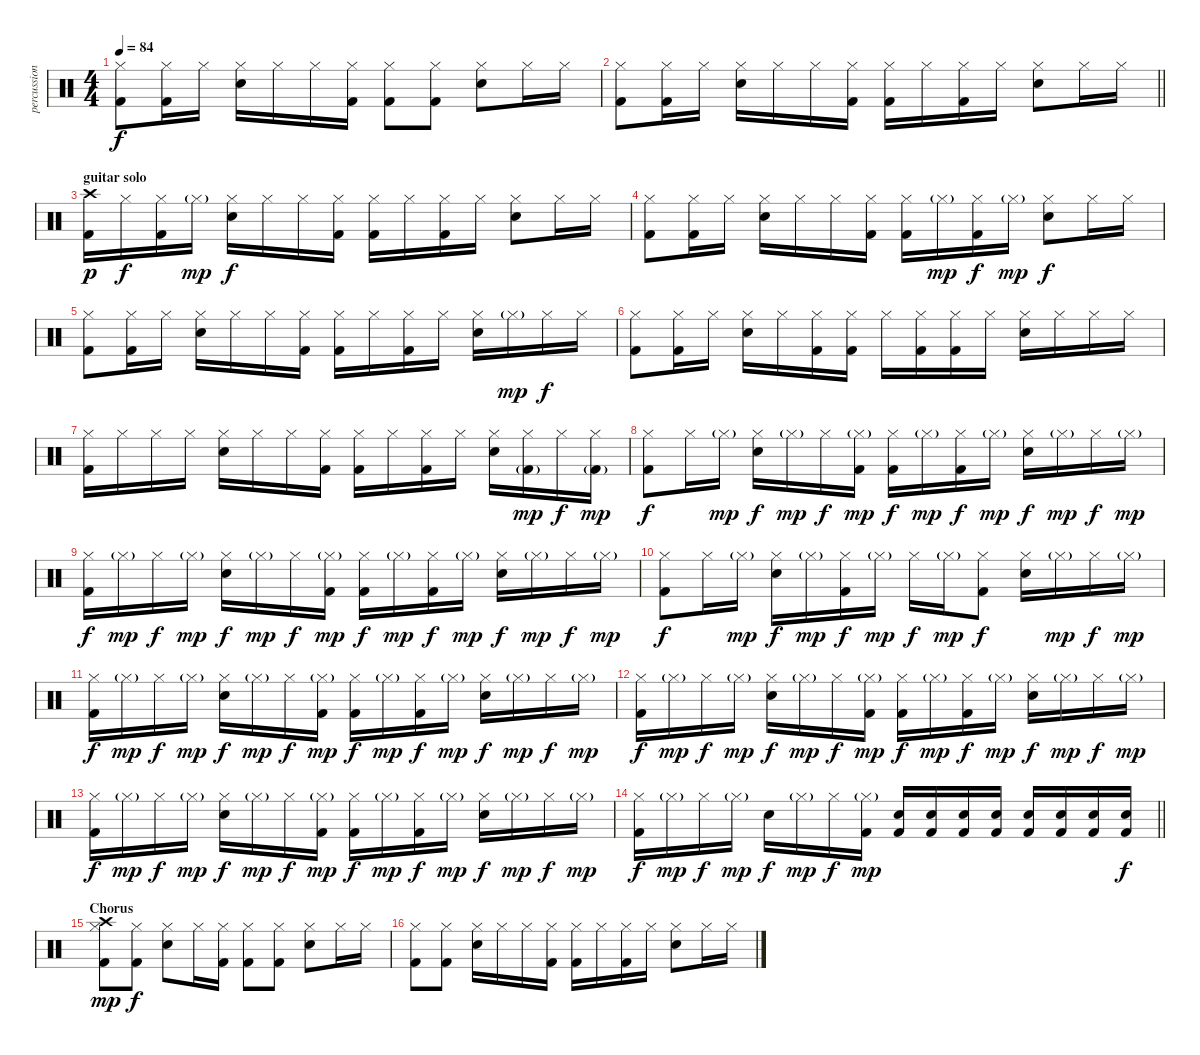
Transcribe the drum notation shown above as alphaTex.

\track ("percussion" "percussion") {instrument percussion}
\staff {score}
\articulation defaults
\ts (4 4)
\tempo 84
\clef neutral
\ks c
("Hi-Hat (closed)" "Kick (hit) 2").8{dy f} ("Hi-Hat (closed)" "Kick (hit) 2").16 "Hi-Hat (closed)".16 ("Snare (hit) 2" "Hi-Hat (closed)").16 "Hi-Hat (closed)".16 "Hi-Hat (closed)".16 ("Hi-Hat (closed)" "Kick (hit) 2").16 ("Hi-Hat (closed)" "Kick (hit) 2").8 ("Hi-Hat (closed)" "Kick (hit) 2").8 ("Snare (hit) 2" "Hi-Hat (closed)").8 "Hi-Hat (closed)".16 "Hi-Hat (closed)".16 |
\barLineRight lightlight
("Hi-Hat (closed)" "Kick (hit) 2").8 ("Hi-Hat (closed)" "Kick (hit) 2").16 "Hi-Hat (closed)".16 ("Snare (hit) 2" "Hi-Hat (closed)").16 "Hi-Hat (closed)".16 "Hi-Hat (closed)".16 ("Hi-Hat (closed)" "Kick (hit) 2").16 ("Hi-Hat (closed)" "Kick (hit) 2").16 "Hi-Hat (closed)".16 ("Hi-Hat (closed)" "Kick (hit) 2").16 "Hi-Hat (closed)".16 ("Snare (hit) 2" "Hi-Hat (closed)").8 "Hi-Hat (closed)".16 "Hi-Hat (closed)".16 |
\section ("" "guitar solo")
("Crash high (hit)" "Kick (hit) 2").16{dy p} "Hi-Hat (closed)".16{dy f} ("Hi-Hat (closed)" "Kick (hit) 2").16 "Hi-Hat (closed)"{g}.16{dy mp} ("Snare (hit) 2" "Hi-Hat (closed)").16{dy f} "Hi-Hat (closed)".16 "Hi-Hat (closed)".16 ("Hi-Hat (closed)" "Kick (hit) 2").16 ("Hi-Hat (closed)" "Kick (hit) 2").16 "Hi-Hat (closed)".16 ("Hi-Hat (closed)" "Kick (hit) 2").16 "Hi-Hat (closed)".16 ("Snare (hit) 2" "Hi-Hat (closed)").8 "Hi-Hat (closed)".16 "Hi-Hat (closed)".16 |
("Hi-Hat (closed)" "Kick (hit) 2").8 ("Hi-Hat (closed)" "Kick (hit) 2").16 "Hi-Hat (closed)".16 ("Snare (hit) 2" "Hi-Hat (closed)").16 "Hi-Hat (closed)".16 "Hi-Hat (closed)".16 ("Hi-Hat (closed)" "Kick (hit) 2").16 ("Hi-Hat (closed)" "Kick (hit) 2").16 "Hi-Hat (closed)"{g}.16{dy mp} ("Hi-Hat (closed)" "Kick (hit) 2").16{dy f} "Hi-Hat (closed)"{g}.16{dy mp} ("Snare (hit) 2" "Hi-Hat (closed)").8{dy f} "Hi-Hat (closed)".16 "Hi-Hat (closed)".16 |
("Hi-Hat (closed)" "Kick (hit) 2").8 ("Hi-Hat (closed)" "Kick (hit) 2").16 "Hi-Hat (closed)".16 ("Snare (hit) 2" "Hi-Hat (closed)").16 "Hi-Hat (closed)".16 "Hi-Hat (closed)".16 ("Hi-Hat (closed)" "Kick (hit) 2").16 ("Hi-Hat (closed)" "Kick (hit) 2").16 "Hi-Hat (closed)".16 ("Hi-Hat (closed)" "Kick (hit) 2").16 "Hi-Hat (closed)".16 ("Snare (hit) 2" "Hi-Hat (closed)").16 "Hi-Hat (closed)"{g}.16{dy mp} "Hi-Hat (closed)".16{dy f} "Hi-Hat (closed)".16 |
("Hi-Hat (closed)" "Kick (hit) 2").8 ("Hi-Hat (closed)" "Kick (hit) 2").16 "Hi-Hat (closed)".16 ("Snare (hit) 2" "Hi-Hat (closed)").16 "Hi-Hat (closed)".16 ("Hi-Hat (closed)" "Kick (hit) 2").16 ("Hi-Hat (closed)" "Kick (hit) 2").16 "Hi-Hat (closed)".16 ("Hi-Hat (closed)" "Kick (hit) 2").16 ("Hi-Hat (closed)" "Kick (hit) 2").16 "Hi-Hat (closed)".16 ("Snare (hit) 2" "Hi-Hat (closed)").16 "Hi-Hat (closed)".16 "Hi-Hat (closed)".16 "Hi-Hat (closed)".16 |
("Hi-Hat (closed)" "Kick (hit) 2").16 "Hi-Hat (closed)".16 "Hi-Hat (closed)".16 "Hi-Hat (closed)".16 ("Snare (hit) 2" "Hi-Hat (closed)").16 "Hi-Hat (closed)".16 "Hi-Hat (closed)".16 ("Hi-Hat (closed)" "Kick (hit) 2").16 ("Hi-Hat (closed)" "Kick (hit) 2").16 "Hi-Hat (closed)".16 ("Hi-Hat (closed)" "Kick (hit) 2").16 "Hi-Hat (closed)".16 ("Snare (hit) 2" "Hi-Hat (closed)").16 ("Hi-Hat (closed)" "Kick (hit) 2"{g}).16{dy mp} "Hi-Hat (closed)".16{dy f} ("Hi-Hat (closed)" "Kick (hit) 2"{g}).16{dy mp} |
("Hi-Hat (closed)" "Kick (hit) 2").8{dy f} "Hi-Hat (closed)".16 "Hi-Hat (closed)"{g}.16{dy mp} ("Snare (hit) 2" "Hi-Hat (closed)").16{dy f} "Hi-Hat (closed)"{g}.16{dy mp} "Hi-Hat (closed)".16{dy f} ("Hi-Hat (closed)"{g} "Kick (hit) 2").16{dy mp} ("Hi-Hat (closed)" "Kick (hit) 2").16{dy f} "Hi-Hat (closed)"{g}.16{dy mp} ("Hi-Hat (closed)" "Kick (hit) 2").16{dy f} "Hi-Hat (closed)"{g}.16{dy mp} ("Snare (hit) 2" "Hi-Hat (closed)").16{dy f} "Hi-Hat (closed)"{g}.16{dy mp} "Hi-Hat (closed)".16{dy f} "Hi-Hat (closed)"{g}.16{dy mp} |
("Hi-Hat (closed)" "Kick (hit) 2").16{dy f} "Hi-Hat (closed)"{g}.16{dy mp} "Hi-Hat (closed)".16{dy f} "Hi-Hat (closed)"{g}.16{dy mp} ("Snare (hit) 2" "Hi-Hat (closed)").16{dy f} "Hi-Hat (closed)"{g}.16{dy mp} "Hi-Hat (closed)".16{dy f} ("Hi-Hat (closed)"{g} "Kick (hit) 2").16{dy mp} ("Hi-Hat (closed)" "Kick (hit) 2").16{dy f} "Hi-Hat (closed)"{g}.16{dy mp} ("Hi-Hat (closed)" "Kick (hit) 2").16{dy f} "Hi-Hat (closed)"{g}.16{dy mp} ("Snare (hit) 2" "Hi-Hat (closed)").16{dy f} "Hi-Hat (closed)"{g}.16{dy mp} "Hi-Hat (closed)".16{dy f} "Hi-Hat (closed)"{g}.16{dy mp} |
("Hi-Hat (closed)" "Kick (hit) 2").8{dy f} "Hi-Hat (closed)".16 "Hi-Hat (closed)"{g}.16{dy mp} ("Snare (hit) 2" "Hi-Hat (closed)").16{dy f} "Hi-Hat (closed)"{g}.16{dy mp} ("Hi-Hat (closed)" "Kick (hit) 2").16{dy f} "Hi-Hat (closed)"{g}.16{dy mp} "Hi-Hat (closed)".16{dy f} "Hi-Hat (closed)"{g}.16{dy mp} ("Hi-Hat (closed)" "Kick (hit) 2").8{dy f} ("Snare (hit) 2" "Hi-Hat (closed)").16 "Hi-Hat (closed)"{g}.16{dy mp} "Hi-Hat (closed)".16{dy f} "Hi-Hat (closed)"{g}.16{dy mp} |
("Hi-Hat (closed)" "Kick (hit) 2").16{dy f} "Hi-Hat (closed)"{g}.16{dy mp} "Hi-Hat (closed)".16{dy f} "Hi-Hat (closed)"{g}.16{dy mp} ("Snare (hit) 2" "Hi-Hat (closed)").16{dy f} "Hi-Hat (closed)"{g}.16{dy mp} "Hi-Hat (closed)".16{dy f} ("Hi-Hat (closed)"{g} "Kick (hit) 2").16{dy mp} ("Hi-Hat (closed)" "Kick (hit) 2").16{dy f} "Hi-Hat (closed)"{g}.16{dy mp} ("Hi-Hat (closed)" "Kick (hit) 2").16{dy f} "Hi-Hat (closed)"{g}.16{dy mp} ("Snare (hit) 2" "Hi-Hat (closed)").16{dy f} "Hi-Hat (closed)"{g}.16{dy mp} "Hi-Hat (closed)".16{dy f} "Hi-Hat (closed)"{g}.16{dy mp} |
("Hi-Hat (closed)" "Kick (hit) 2").16{dy f} "Hi-Hat (closed)"{g}.16{dy mp} "Hi-Hat (closed)".16{dy f} "Hi-Hat (closed)"{g}.16{dy mp} ("Snare (hit) 2" "Hi-Hat (closed)").16{dy f} "Hi-Hat (closed)"{g}.16{dy mp} "Hi-Hat (closed)".16{dy f} ("Hi-Hat (closed)"{g} "Kick (hit) 2").16{dy mp} ("Hi-Hat (closed)" "Kick (hit) 2").16{dy f} "Hi-Hat (closed)"{g}.16{dy mp} ("Hi-Hat (closed)" "Kick (hit) 2").16{dy f} "Hi-Hat (closed)"{g}.16{dy mp} ("Snare (hit) 2" "Hi-Hat (closed)").16{dy f} "Hi-Hat (closed)"{g}.16{dy mp} "Hi-Hat (closed)".16{dy f} "Hi-Hat (closed)"{g}.16{dy mp} |
("Hi-Hat (closed)" "Kick (hit) 2").16{dy f} "Hi-Hat (closed)"{g}.16{dy mp} "Hi-Hat (closed)".16{dy f} "Hi-Hat (closed)"{g}.16{dy mp} ("Snare (hit) 2" "Hi-Hat (closed)").16{dy f} "Hi-Hat (closed)"{g}.16{dy mp} "Hi-Hat (closed)".16{dy f} ("Hi-Hat (closed)"{g} "Kick (hit) 2").16{dy mp} ("Hi-Hat (closed)" "Kick (hit) 2").16{dy f} "Hi-Hat (closed)"{g}.16{dy mp} ("Hi-Hat (closed)" "Kick (hit) 2").16{dy f} "Hi-Hat (closed)"{g}.16{dy mp} ("Snare (hit) 2" "Hi-Hat (closed)").16{dy f} "Hi-Hat (closed)"{g}.16{dy mp} "Hi-Hat (closed)".16{dy f} "Hi-Hat (closed)"{g}.16{dy mp} |
\barLineRight lightlight
("Hi-Hat (closed)" "Kick (hit) 2").16{dy f} "Hi-Hat (closed)"{g}.16{dy mp} "Hi-Hat (closed)".16{dy f} "Hi-Hat (closed)"{g}.16{dy mp} "Snare (hit) 2".16{dy f} "Hi-Hat (closed)"{g}.16{dy mp} "Hi-Hat (closed)".16{dy f} ("Hi-Hat (closed)"{g} "Kick (hit) 2").16{dy mp} ("Snare (hit) 2" "Kick (hit) 2").16 ("Snare (hit) 2" "Kick (hit) 2").16 ("Snare (hit) 2" "Kick (hit) 2").16 ("Snare (hit) 2" "Kick (hit) 2").16 ("Snare (hit) 2" "Kick (hit) 2").16 ("Snare (hit) 2" "Kick (hit) 2").16 ("Snare (hit) 2" "Kick (hit) 2").16 ("Snare (hit) 2" "Kick (hit) 2").16{dy f} |
\section ("" "Chorus")
("Crash high (hit)" "Hi-Hat (closed)" "Kick (hit) 2").8{dy mp} ("Hi-Hat (closed)" "Kick (hit) 2").8{dy f} ("Snare (hit) 2" "Hi-Hat (closed)").8 "Hi-Hat (closed)".16 ("Hi-Hat (closed)" "Kick (hit) 2").16 ("Hi-Hat (closed)" "Kick (hit) 2").8 ("Hi-Hat (closed)" "Kick (hit) 2").8 ("Snare (hit) 2" "Hi-Hat (closed)").8 "Hi-Hat (closed)".16 "Hi-Hat (closed)".16 |
("Hi-Hat (closed)" "Kick (hit) 2").8 ("Hi-Hat (closed)" "Kick (hit) 2").8 ("Snare (hit) 2" "Hi-Hat (closed)").16 "Hi-Hat (closed)".16 "Hi-Hat (closed)".16 ("Hi-Hat (closed)" "Kick (hit) 2").16 ("Hi-Hat (closed)" "Kick (hit) 2").16 "Hi-Hat (closed)".16 ("Hi-Hat (closed)" "Kick (hit) 2").16 "Hi-Hat (closed)".16 ("Snare (hit) 2" "Hi-Hat (closed)").8 "Hi-Hat (closed)".16 "Hi-Hat (closed)".16
